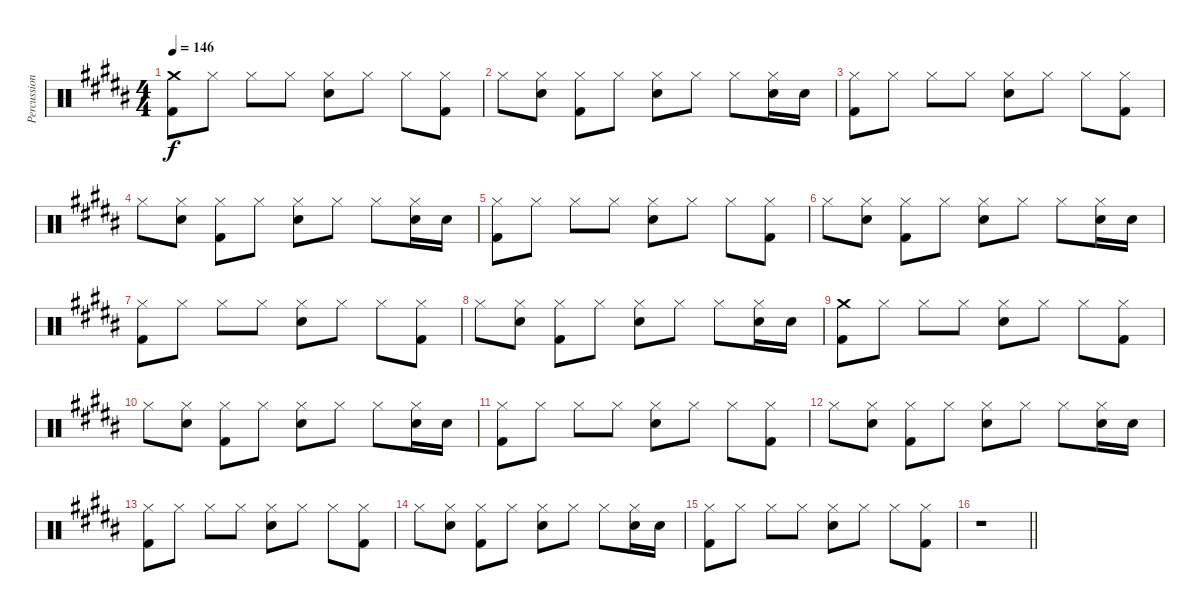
\track ("Percussion" "Percussion") {instrument percussion}
\staff {score}
\articulation defaults
\ts (4 4)
\tempo 146
\clef neutral
\ks b
("Crash medium (hit)" "Kick (hit) 2").8{dy f} "Hi-Hat (closed)".8 "Hi-Hat (closed)".8 "Hi-Hat (closed)".8 ("Hi-Hat (closed)" "Snare (hit) 2").8 "Hi-Hat (closed)".8 "Hi-Hat (closed)".8 ("Hi-Hat (closed)" "Kick (hit) 2").8 |
"Hi-Hat (closed)".8 ("Hi-Hat (closed)" "Snare (hit) 2").8 ("Hi-Hat (closed)" "Kick (hit) 2").8 "Hi-Hat (closed)".8 ("Hi-Hat (closed)" "Snare (hit) 2").8 "Hi-Hat (closed)".8 "Hi-Hat (closed)".8 ("Hi-Hat (closed)" "Snare (hit) 2").16 "Snare (hit) 2".16 |
("Hi-Hat (closed)" "Kick (hit) 2").8 "Hi-Hat (closed)".8 "Hi-Hat (closed)".8 "Hi-Hat (closed)".8 ("Hi-Hat (closed)" "Snare (hit) 2").8 "Hi-Hat (closed)".8 "Hi-Hat (closed)".8 ("Hi-Hat (closed)" "Kick (hit) 2").8 |
"Hi-Hat (closed)".8 ("Hi-Hat (closed)" "Snare (hit) 2").8 ("Hi-Hat (closed)" "Kick (hit) 2").8 "Hi-Hat (closed)".8 ("Hi-Hat (closed)" "Snare (hit) 2").8 "Hi-Hat (closed)".8 "Hi-Hat (closed)".8 ("Hi-Hat (closed)" "Snare (hit) 2").16 "Snare (hit) 2".16 |
("Hi-Hat (closed)" "Kick (hit) 2").8 "Hi-Hat (closed)".8 "Hi-Hat (closed)".8 "Hi-Hat (closed)".8 ("Hi-Hat (closed)" "Snare (hit) 2").8 "Hi-Hat (closed)".8 "Hi-Hat (closed)".8 ("Hi-Hat (closed)" "Kick (hit) 2").8 |
"Hi-Hat (closed)".8 ("Hi-Hat (closed)" "Snare (hit) 2").8 ("Hi-Hat (closed)" "Kick (hit) 2").8 "Hi-Hat (closed)".8 ("Hi-Hat (closed)" "Snare (hit) 2").8 "Hi-Hat (closed)".8 "Hi-Hat (closed)".8 ("Hi-Hat (closed)" "Snare (hit) 2").16 "Snare (hit) 2".16 |
("Hi-Hat (closed)" "Kick (hit) 2").8 "Hi-Hat (closed)".8 "Hi-Hat (closed)".8 "Hi-Hat (closed)".8 ("Hi-Hat (closed)" "Snare (hit) 2").8 "Hi-Hat (closed)".8 "Hi-Hat (closed)".8 ("Hi-Hat (closed)" "Kick (hit) 2").8 |
"Hi-Hat (closed)".8 ("Hi-Hat (closed)" "Snare (hit) 2").8 ("Hi-Hat (closed)" "Kick (hit) 2").8 "Hi-Hat (closed)".8 ("Hi-Hat (closed)" "Snare (hit) 2").8 "Hi-Hat (closed)".8 "Hi-Hat (closed)".8 ("Hi-Hat (closed)" "Snare (hit) 2").16 "Snare (hit) 2".16 |
("Crash medium (hit)" "Kick (hit) 2").8 "Hi-Hat (closed)".8 "Hi-Hat (closed)".8 "Hi-Hat (closed)".8 ("Hi-Hat (closed)" "Snare (hit) 2").8 "Hi-Hat (closed)".8 "Hi-Hat (closed)".8 ("Hi-Hat (closed)" "Kick (hit) 2").8 |
"Hi-Hat (closed)".8 ("Hi-Hat (closed)" "Snare (hit) 2").8 ("Hi-Hat (closed)" "Kick (hit) 2").8 "Hi-Hat (closed)".8 ("Hi-Hat (closed)" "Snare (hit) 2").8 "Hi-Hat (closed)".8 "Hi-Hat (closed)".8 ("Hi-Hat (closed)" "Snare (hit) 2").16 "Snare (hit) 2".16 |
("Hi-Hat (closed)" "Kick (hit) 2").8 "Hi-Hat (closed)".8 "Hi-Hat (closed)".8 "Hi-Hat (closed)".8 ("Hi-Hat (closed)" "Snare (hit) 2").8 "Hi-Hat (closed)".8 "Hi-Hat (closed)".8 ("Hi-Hat (closed)" "Kick (hit) 2").8 |
"Hi-Hat (closed)".8 ("Hi-Hat (closed)" "Snare (hit) 2").8 ("Hi-Hat (closed)" "Kick (hit) 2").8 "Hi-Hat (closed)".8 ("Hi-Hat (closed)" "Snare (hit) 2").8 "Hi-Hat (closed)".8 "Hi-Hat (closed)".8 ("Hi-Hat (closed)" "Snare (hit) 2").16 "Snare (hit) 2".16 |
("Hi-Hat (closed)" "Kick (hit) 2").8 "Hi-Hat (closed)".8 "Hi-Hat (closed)".8 "Hi-Hat (closed)".8 ("Hi-Hat (closed)" "Snare (hit) 2").8 "Hi-Hat (closed)".8 "Hi-Hat (closed)".8 ("Hi-Hat (closed)" "Kick (hit) 2").8 |
"Hi-Hat (closed)".8 ("Hi-Hat (closed)" "Snare (hit) 2").8 ("Hi-Hat (closed)" "Kick (hit) 2").8 "Hi-Hat (closed)".8 ("Hi-Hat (closed)" "Snare (hit) 2").8 "Hi-Hat (closed)".8 "Hi-Hat (closed)".8 ("Hi-Hat (closed)" "Snare (hit) 2").16 "Snare (hit) 2".16 |
("Hi-Hat (closed)" "Kick (hit) 2").8 "Hi-Hat (closed)".8 "Hi-Hat (closed)".8 "Hi-Hat (closed)".8 ("Hi-Hat (closed)" "Snare (hit) 2").8 "Hi-Hat (closed)".8 "Hi-Hat (closed)".8 ("Hi-Hat (closed)" "Kick (hit) 2").8 |
\barLineRight lightlight
r.1
